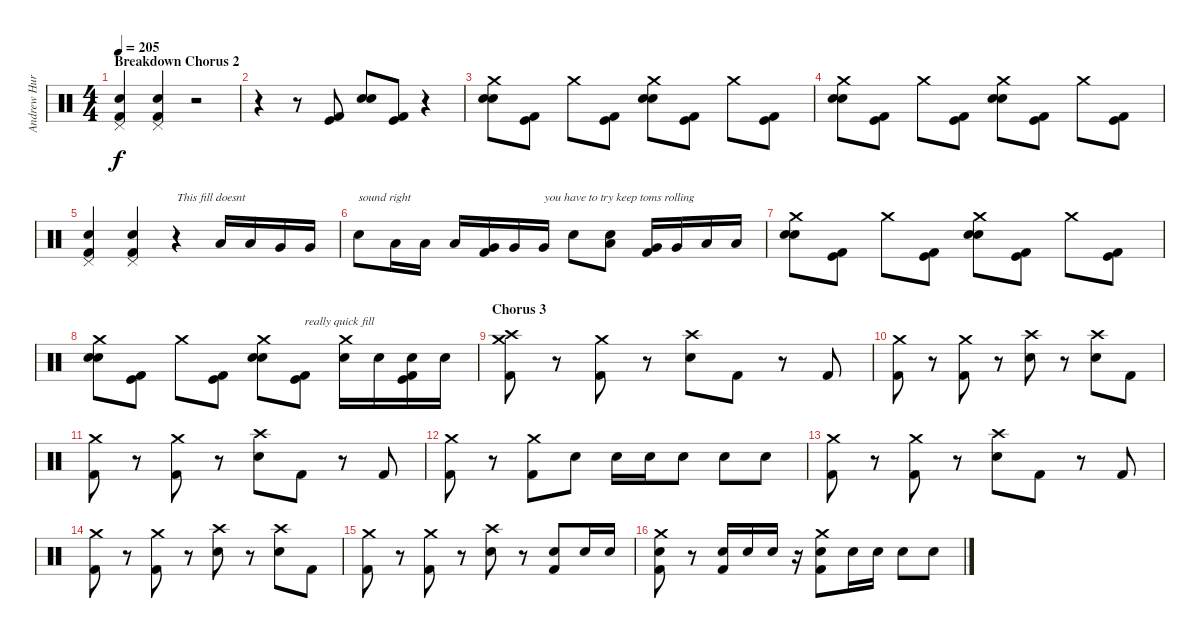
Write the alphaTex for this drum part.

\track ("Andrew Hurley (Drums)" "Andrew Hur") {instrument percussion}
\staff {score}
\articulation defaults
\ts (4 4)
\section ("" "Breakdown Chorus 2")
\tempo 205
\clef neutral
\ks c
("Pedal Hi-Hat (hit)" "Electric Snare (hit)" "Kick (hit) 2").4{dy f volume 12} ("Pedal Hi-Hat (hit)" "Electric Snare (hit)" "Kick (hit) 2").4 r.2 |
r.4 r.8 ("Kick (hit)" "Kick (hit) 2").8 ("Snare (hit) 2" "Electric Snare (hit)").8 ("Kick (hit)" "Kick (hit) 2").8 r.4 |
("Crash medium (hit)" "Snare (hit) 2" "Electric Snare (hit)").8 ("Kick (hit)" "Kick (hit) 2").8 "Crash medium (hit)".8 ("Kick (hit)" "Kick (hit) 2").8 ("Crash medium (hit)" "Snare (hit) 2" "Electric Snare (hit)").8 ("Kick (hit)" "Kick (hit) 2").8 "Crash medium (hit)".8 ("Kick (hit)" "Kick (hit) 2").8 |
("Crash medium (hit)" "Snare (hit) 2" "Electric Snare (hit)").8 ("Kick (hit)" "Kick (hit) 2").8 "Crash medium (hit)".8 ("Kick (hit)" "Kick (hit) 2").8 ("Crash medium (hit)" "Snare (hit) 2" "Electric Snare (hit)").8 ("Kick (hit)" "Kick (hit) 2").8 "Crash medium (hit)".8 ("Kick (hit)" "Kick (hit) 2").8 |
("Pedal Hi-Hat (hit)" "Electric Snare (hit)" "Kick (hit) 2").4 ("Pedal Hi-Hat (hit)" "Electric Snare (hit)" "Kick (hit) 2").4 r.4{txt "This fill doesnt"} "Low Tom (hit)".16 "Low Tom (hit)".16 "Very Low Tom (hit)".16 "Very Low Tom (hit)".16 |
"Electric Snare (hit)".8{txt "sound right"} "Low Tom (hit)".16 "Low Tom (hit)".16 "Low Tom (hit)".16 ("Very Low Tom (hit)" "Kick (hit) 2").16 "Very Low Tom (hit)".16 "Very Low Tom (hit)".16{txt "you have to try keep toms rolling"} "Electric Snare (hit)".8 ("Electric Snare (hit)" "Low Tom (hit)").8 ("Very Low Tom (hit)" "Kick (hit) 2").16 "Very Low Tom (hit)".16 "Low Floor Tom (hit)".16 "Low Floor Tom (hit)".16 |
("Crash medium (hit)" "Snare (hit) 2" "Electric Snare (hit)").8 ("Kick (hit)" "Kick (hit) 2").8 "Crash medium (hit)".8 ("Kick (hit)" "Kick (hit) 2").8 ("Crash medium (hit)" "Snare (hit) 2" "Electric Snare (hit)").8 ("Kick (hit)" "Kick (hit) 2").8 "Crash medium (hit)".8 ("Kick (hit)" "Kick (hit) 2").8 |
("Crash medium (hit)" "Snare (hit) 2" "Electric Snare (hit)").8 ("Kick (hit)" "Kick (hit) 2").8 "Crash medium (hit)".8 ("Kick (hit)" "Kick (hit) 2").8 ("Crash medium (hit)" "Snare (hit) 2" "Electric Snare (hit)").8 ("Kick (hit)" "Kick (hit) 2").8{txt "really quick fill"} ("Crash medium (hit)" "Electric Snare (hit)").16 "Electric Snare (hit)".16 ("Electric Snare (hit)" "Kick (hit)" "Kick (hit) 2").16 "Electric Snare (hit)".16 |
\section ("" "Chorus 3")
("Crash high (hit)" "Crash medium (hit)" "Kick (hit) 2").8 r.8 ("Crash medium (hit)" "Kick (hit) 2").8 r.8 ("Crash high (hit)" "Electric Snare (hit)").8 "Kick (hit) 2".8 r.8 "Kick (hit) 2".8 |
("Crash medium (hit)" "Kick (hit) 2").8 r.8 ("Crash medium (hit)" "Kick (hit) 2").8 r.8 ("Crash high (hit)" "Electric Snare (hit)").8 r.8 ("Crash high (hit)" "Electric Snare (hit)").8 "Kick (hit) 2".8 |
("Crash medium (hit)" "Kick (hit) 2").8 r.8 ("Crash medium (hit)" "Kick (hit) 2").8 r.8 ("Crash high (hit)" "Electric Snare (hit)").8 "Kick (hit) 2".8 r.8 "Kick (hit) 2".8 |
("Crash medium (hit)" "Kick (hit) 2").8 r.8 ("Crash medium (hit)" "Kick (hit) 2").8 "Electric Snare (hit)".8 "Electric Snare (hit)".16 "Electric Snare (hit)".16 "Electric Snare (hit)".8 "Electric Snare (hit)".8 "Electric Snare (hit)".8 |
("Crash medium (hit)" "Kick (hit) 2").8 r.8 ("Crash medium (hit)" "Kick (hit) 2").8 r.8 ("Crash high (hit)" "Electric Snare (hit)").8 "Kick (hit) 2".8 r.8 "Kick (hit) 2".8 |
("Crash medium (hit)" "Kick (hit) 2").8 r.8 ("Crash medium (hit)" "Kick (hit) 2").8 r.8 ("Crash high (hit)" "Electric Snare (hit)").8 r.8 ("Crash high (hit)" "Electric Snare (hit)").8 "Kick (hit) 2".8 |
("Crash medium (hit)" "Kick (hit) 2").8 r.8 ("Crash medium (hit)" "Kick (hit) 2").8 r.8 ("Crash high (hit)" "Electric Snare (hit)").8 r.8 ("Electric Snare (hit)" "Kick (hit) 2").8 "Electric Snare (hit)".16 "Electric Snare (hit)".16 |
("Crash medium (hit)" "Electric Snare (hit)" "Kick (hit) 2").8 r.8 ("Electric Snare (hit)" "Kick (hit) 2").16 "Electric Snare (hit)".16 "Electric Snare (hit)".16 r.16 ("Crash medium (hit)" "Electric Snare (hit)" "Kick (hit) 2").8 "Electric Snare (hit)".16 "Electric Snare (hit)".16 "Electric Snare (hit)".8 "Electric Snare (hit)".8
